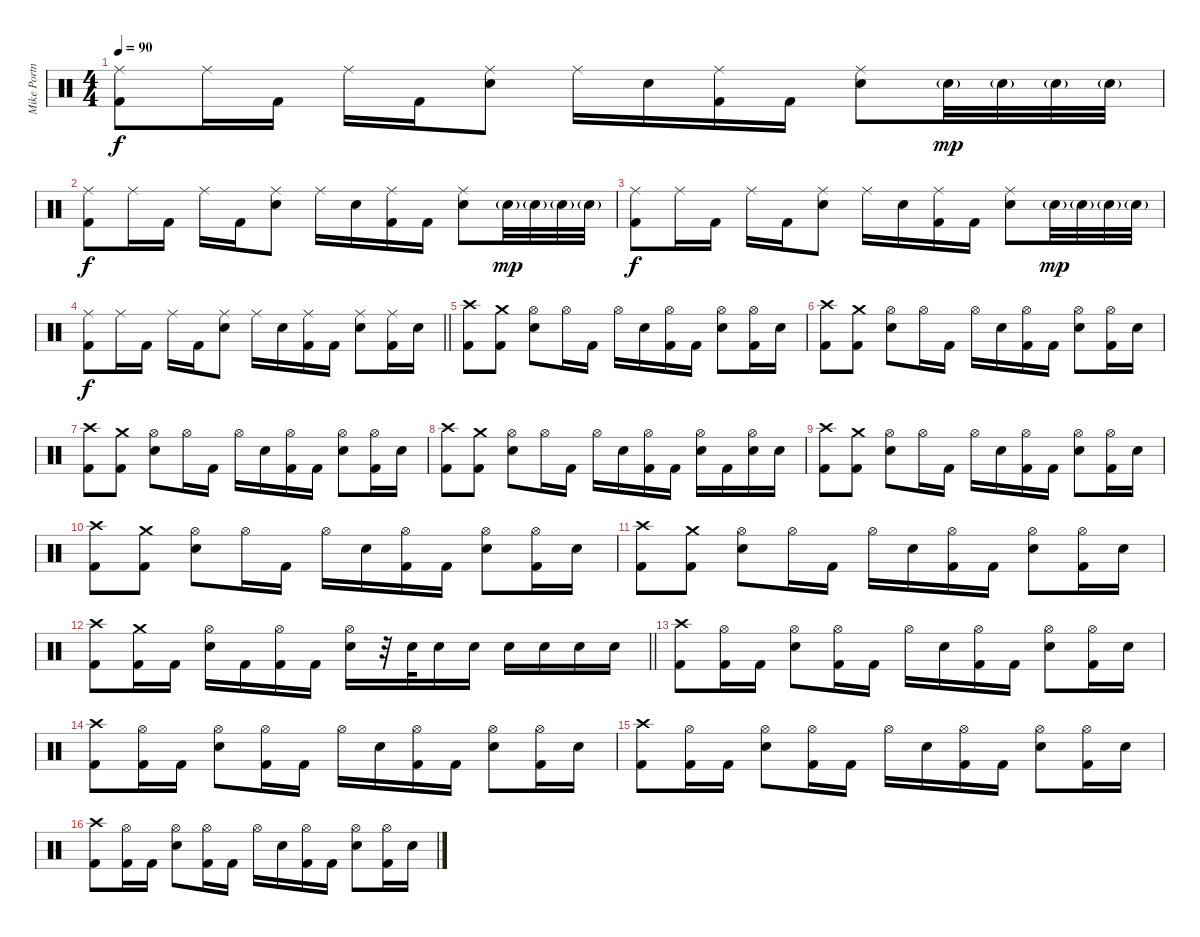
\track ("Mike Portnoy" "Mike Portn") {instrument percussion}
\staff {score}
\articulation defaults
\ts (4 4)
\tempo 90
\clef neutral
\ks c
("Ride (middle)" "Kick (hit) 2").8{dy f} "Ride (middle)".16 "Kick (hit) 2".16 "Ride (middle)".16 "Kick (hit) 2".16 ("Ride (middle)" "Snare (hit) 2").8 "Ride (middle)".16 "Snare (hit) 2".16 ("Ride (middle)" "Kick (hit) 2").16 "Kick (hit) 2".16 ("Ride (middle)" "Snare (hit) 2").8 "Snare (hit) 2"{g}.32{dy mp} "Snare (hit) 2"{g}.32 "Snare (hit) 2"{g}.32 "Snare (hit) 2"{g}.32 |
("Ride (middle)" "Kick (hit) 2").8{dy f} "Ride (middle)".16 "Kick (hit) 2".16 "Ride (middle)".16 "Kick (hit) 2".16 ("Ride (middle)" "Snare (hit) 2").8 "Ride (middle)".16 "Snare (hit) 2".16 ("Ride (middle)" "Kick (hit) 2").16 "Kick (hit) 2".16 ("Ride (middle)" "Snare (hit) 2").8 "Snare (hit) 2"{g}.32{dy mp} "Snare (hit) 2"{g}.32 "Snare (hit) 2"{g}.32 "Snare (hit) 2"{g}.32 |
("Ride (middle)" "Kick (hit) 2").8{dy f} "Ride (middle)".16 "Kick (hit) 2".16 "Ride (middle)".16 "Kick (hit) 2".16 ("Ride (middle)" "Snare (hit) 2").8 "Ride (middle)".16 "Snare (hit) 2".16 ("Ride (middle)" "Kick (hit) 2").16 "Kick (hit) 2".16 ("Ride (middle)" "Snare (hit) 2").8 "Snare (hit) 2"{g}.32{dy mp} "Snare (hit) 2"{g}.32 "Snare (hit) 2"{g}.32 "Snare (hit) 2"{g}.32 |
\barLineRight lightlight
("Ride (middle)" "Kick (hit) 2").8{dy f} "Ride (middle)".16 "Kick (hit) 2".16 "Ride (middle)".16 "Kick (hit) 2".16 ("Ride (middle)" "Snare (hit) 2").8 "Ride (middle)".16 "Snare (hit) 2".16 ("Ride (middle)" "Kick (hit) 2").16 "Kick (hit) 2".16 ("Ride (middle)" "Snare (hit) 2").8 ("Ride (middle)" "Kick (hit) 2").16 "Snare (hit) 2".16 |
("Crash high (hit)" "Kick (hit) 2").8 ("Crash medium (hit)" "Kick (hit) 2").8 ("Hi-Hat (open)" "Snare (hit) 2").8 "Hi-Hat (open)".16 "Kick (hit) 2".16 "Hi-Hat (open)".16 "Snare (hit) 2".16 ("Hi-Hat (open)" "Kick (hit) 2").16 "Kick (hit) 2".16 ("Hi-Hat (open)" "Snare (hit) 2").8 ("Hi-Hat (open)" "Kick (hit) 2").16 "Snare (hit) 2".16 |
("Crash high (hit)" "Kick (hit) 2").8 ("Crash medium (hit)" "Kick (hit) 2").8 ("Hi-Hat (open)" "Snare (hit) 2").8 "Hi-Hat (open)".16 "Kick (hit) 2".16 "Hi-Hat (open)".16 "Snare (hit) 2".16 ("Hi-Hat (open)" "Kick (hit) 2").16 "Kick (hit) 2".16 ("Hi-Hat (open)" "Snare (hit) 2").8 ("Hi-Hat (open)" "Kick (hit) 2").16 "Snare (hit) 2".16 |
("Crash high (hit)" "Kick (hit) 2").8 ("Crash medium (hit)" "Kick (hit) 2").8 ("Hi-Hat (open)" "Snare (hit) 2").8 "Hi-Hat (open)".16 "Kick (hit) 2".16 "Hi-Hat (open)".16 "Snare (hit) 2".16 ("Hi-Hat (open)" "Kick (hit) 2").16 "Kick (hit) 2".16 ("Hi-Hat (open)" "Snare (hit) 2").8 ("Hi-Hat (open)" "Kick (hit) 2").16 "Snare (hit) 2".16 |
("Crash high (hit)" "Kick (hit) 2").8 ("Crash medium (hit)" "Kick (hit) 2").8 ("Hi-Hat (open)" "Snare (hit) 2").8 "Hi-Hat (open)".16 "Kick (hit) 2".16 "Hi-Hat (open)".16 "Snare (hit) 2".16 ("Hi-Hat (open)" "Kick (hit) 2").16 "Kick (hit) 2".16 ("Hi-Hat (open)" "Snare (hit) 2").16 "Kick (hit) 2".16 ("Hi-Hat (open)" "Snare (hit) 2").16 "Snare (hit) 2".16 |
("Crash high (hit)" "Kick (hit) 2").8 ("Crash medium (hit)" "Kick (hit) 2").8 ("Hi-Hat (open)" "Snare (hit) 2").8 "Hi-Hat (open)".16 "Kick (hit) 2".16 "Hi-Hat (open)".16 "Snare (hit) 2".16 ("Hi-Hat (open)" "Kick (hit) 2").16 "Kick (hit) 2".16 ("Hi-Hat (open)" "Snare (hit) 2").8 ("Hi-Hat (open)" "Kick (hit) 2").16 "Snare (hit) 2".16 |
("Crash high (hit)" "Kick (hit) 2").8 ("Crash medium (hit)" "Kick (hit) 2").8 ("Hi-Hat (open)" "Snare (hit) 2").8 "Hi-Hat (open)".16 "Kick (hit) 2".16 "Hi-Hat (open)".16 "Snare (hit) 2".16 ("Hi-Hat (open)" "Kick (hit) 2").16 "Kick (hit) 2".16 ("Hi-Hat (open)" "Snare (hit) 2").8 ("Hi-Hat (open)" "Kick (hit) 2").16 "Snare (hit) 2".16 |
("Crash high (hit)" "Kick (hit) 2").8 ("Crash medium (hit)" "Kick (hit) 2").8 ("Hi-Hat (open)" "Snare (hit) 2").8 "Hi-Hat (open)".16 "Kick (hit) 2".16 "Hi-Hat (open)".16 "Snare (hit) 2".16 ("Hi-Hat (open)" "Kick (hit) 2").16 "Kick (hit) 2".16 ("Hi-Hat (open)" "Snare (hit) 2").8 ("Hi-Hat (open)" "Kick (hit) 2").16 "Snare (hit) 2".16 |
\barLineRight lightlight
("Crash high (hit)" "Kick (hit) 2").8 ("Crash medium (hit)" "Kick (hit) 2").16 "Kick (hit) 2".16 ("Hi-Hat (open)" "Snare (hit) 2").16 "Kick (hit) 2".16 ("Hi-Hat (open)" "Kick (hit) 2").16 "Kick (hit) 2".16 ("Hi-Hat (open)" "Snare (hit) 2").16 r.32 "Snare (hit) 2".32 "Snare (hit) 2".16 "Snare (hit) 2".16 "Snare (hit) 2".16 "Snare (hit) 2".16 "Snare (hit) 2".16 "Snare (hit) 2".16 |
("Crash high (hit)" "Kick (hit) 2").8 ("Hi-Hat (open)" "Kick (hit) 2").16 "Kick (hit) 2".16 ("Hi-Hat (open)" "Snare (hit) 2").8 ("Hi-Hat (open)" "Kick (hit) 2").16 "Kick (hit) 2".16 "Hi-Hat (open)".16 "Snare (hit) 2".16 ("Hi-Hat (open)" "Kick (hit) 2").16 "Kick (hit) 2".16 ("Hi-Hat (open)" "Snare (hit) 2").8 ("Hi-Hat (open)" "Kick (hit) 2").16 "Snare (hit) 2".16 |
("Crash high (hit)" "Kick (hit) 2").8 ("Hi-Hat (open)" "Kick (hit) 2").16 "Kick (hit) 2".16 ("Hi-Hat (open)" "Snare (hit) 2").8 ("Hi-Hat (open)" "Kick (hit) 2").16 "Kick (hit) 2".16 "Hi-Hat (open)".16 "Snare (hit) 2".16 ("Hi-Hat (open)" "Kick (hit) 2").16 "Kick (hit) 2".16 ("Hi-Hat (open)" "Snare (hit) 2").8 ("Hi-Hat (open)" "Kick (hit) 2").16 "Snare (hit) 2".16 |
("Crash high (hit)" "Kick (hit) 2").8 ("Hi-Hat (open)" "Kick (hit) 2").16 "Kick (hit) 2".16 ("Hi-Hat (open)" "Snare (hit) 2").8 ("Hi-Hat (open)" "Kick (hit) 2").16 "Kick (hit) 2".16 "Hi-Hat (open)".16 "Snare (hit) 2".16 ("Hi-Hat (open)" "Kick (hit) 2").16 "Kick (hit) 2".16 ("Hi-Hat (open)" "Snare (hit) 2").8 ("Hi-Hat (open)" "Kick (hit) 2").16 "Snare (hit) 2".16 |
("Crash high (hit)" "Kick (hit) 2").8 ("Hi-Hat (open)" "Kick (hit) 2").16 "Kick (hit) 2".16 ("Hi-Hat (open)" "Snare (hit) 2").8 ("Hi-Hat (open)" "Kick (hit) 2").16 "Kick (hit) 2".16 "Hi-Hat (open)".16 "Snare (hit) 2".16 ("Hi-Hat (open)" "Kick (hit) 2").16 "Kick (hit) 2".16 ("Hi-Hat (open)" "Snare (hit) 2").8 ("Hi-Hat (open)" "Kick (hit) 2").16 "Snare (hit) 2".16
